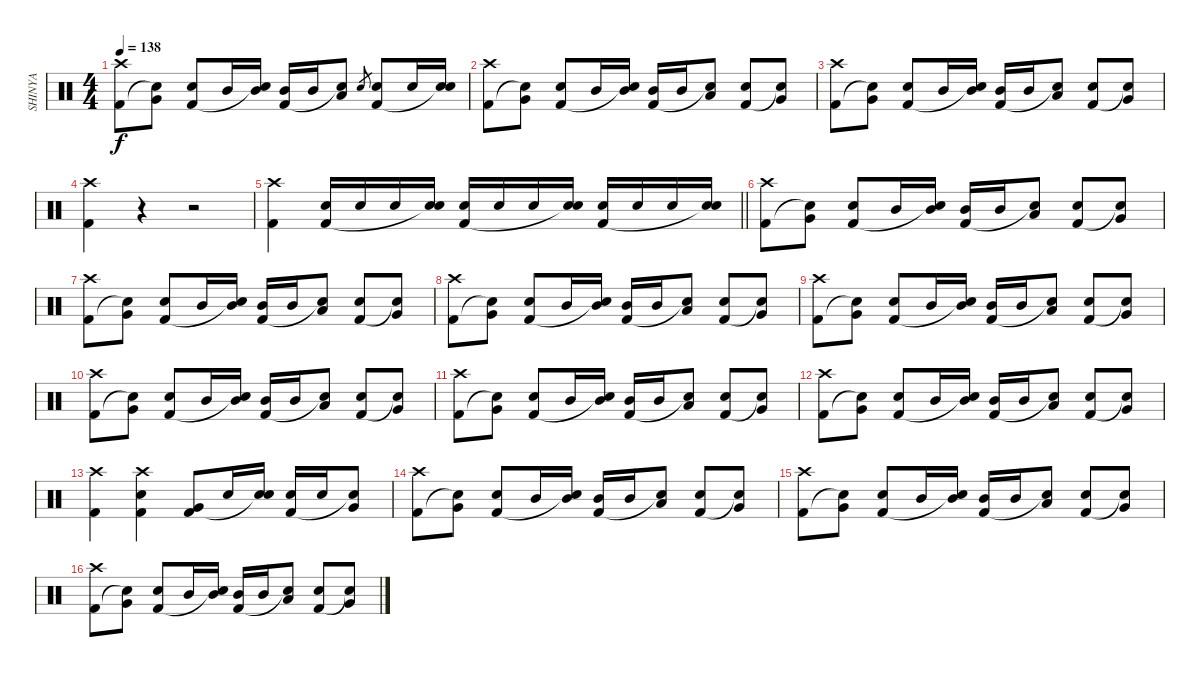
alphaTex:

\track ("SHINYA" "SHINYA") {instrument percussion}
\staff {score}
\articulation defaults
\ts (4 4)
\tempo 138
\clef neutral
\ks c
("Crash high (hit)" "Kick (hit) 2").8{dy f} ("Very Low Tom (hit)" "Snare (hit)"{t}).8 ("Electric Snare (hit)" "Kick (hit) 2").8 "Mid Tom (hit)".16 ("Mid Tom (hit)" "Snare (hit)"{t}).16 ("Mid Tom (hit)" "Kick (hit) 2").16 "Mid Tom (hit)".16 ("Low Tom (hit)" "Snare (hit)"{t}).8 "Electric Snare (hit)".8{gr} ("Electric Snare (hit)" "Kick (hit) 2").8 "Electric Snare (hit)".16 ("Electric Snare (hit)" "Snare (hit)"{t}).16 |
("Crash high (hit)" "Kick (hit) 2").8 ("Very Low Tom (hit)" "Snare (hit)"{t}).8 ("Electric Snare (hit)" "Kick (hit) 2").8 "Mid Tom (hit)".16 ("Mid Tom (hit)" "Snare (hit)"{t}).16 ("Mid Tom (hit)" "Kick (hit) 2").16 "Mid Tom (hit)".16 ("Low Tom (hit)" "Snare (hit)"{t}).8 ("Electric Snare (hit)" "Kick (hit) 2").8 ("Very Low Tom (hit)" "Snare (hit)"{t}).8 |
("Crash high (hit)" "Kick (hit) 2").8 ("Very Low Tom (hit)" "Snare (hit)"{t}).8 ("Electric Snare (hit)" "Kick (hit) 2").8 "Mid Tom (hit)".16 ("Mid Tom (hit)" "Snare (hit)"{t}).16 ("Mid Tom (hit)" "Kick (hit) 2").16 "Mid Tom (hit)".16 ("Low Tom (hit)" "Snare (hit)"{t}).8 ("Electric Snare (hit)" "Kick (hit) 2").8 ("Very Low Tom (hit)" "Snare (hit)"{t}).8 |
("Crash high (hit)" "Kick (hit) 2").4 r.4 r.2 |
\barLineRight lightlight
("Crash high (hit)" "Kick (hit) 2").4 ("Electric Snare (hit)" "Kick (hit) 2").16 "Electric Snare (hit)".16 "Electric Snare (hit)".16 ("Electric Snare (hit)" "Snare (hit)"{t}).16 ("Electric Snare (hit)" "Kick (hit) 2").16 "Electric Snare (hit)".16 "Electric Snare (hit)".16 ("Electric Snare (hit)" "Snare (hit)"{t}).16 ("Electric Snare (hit)" "Kick (hit) 2").16 "Electric Snare (hit)".16 "Electric Snare (hit)".16 ("Electric Snare (hit)" "Snare (hit)"{t}).16 |
("Crash high (hit)" "Kick (hit) 2").8 ("Very Low Tom (hit)" "Snare (hit)"{t}).8 ("Electric Snare (hit)" "Kick (hit) 2").8 "Mid Tom (hit)".16 ("Mid Tom (hit)" "Snare (hit)"{t}).16 ("Mid Tom (hit)" "Kick (hit) 2").16 "Mid Tom (hit)".16 ("Low Tom (hit)" "Snare (hit)"{t}).8 ("Electric Snare (hit)" "Kick (hit) 2").8 ("Very Low Tom (hit)" "Snare (hit)"{t}).8 |
("Crash high (hit)" "Kick (hit) 2").8 ("Very Low Tom (hit)" "Snare (hit)"{t}).8 ("Electric Snare (hit)" "Kick (hit) 2").8 "Mid Tom (hit)".16 ("Mid Tom (hit)" "Snare (hit)"{t}).16 ("Mid Tom (hit)" "Kick (hit) 2").16 "Mid Tom (hit)".16 ("Low Tom (hit)" "Snare (hit)"{t}).8 ("Electric Snare (hit)" "Kick (hit) 2").8 ("Very Low Tom (hit)" "Snare (hit)"{t}).8 |
("Crash high (hit)" "Kick (hit) 2").8 ("Very Low Tom (hit)" "Snare (hit)"{t}).8 ("Electric Snare (hit)" "Kick (hit) 2").8 "Mid Tom (hit)".16 ("Mid Tom (hit)" "Snare (hit)"{t}).16 ("Mid Tom (hit)" "Kick (hit) 2").16 "Mid Tom (hit)".16 ("Low Tom (hit)" "Snare (hit)"{t}).8 ("Electric Snare (hit)" "Kick (hit) 2").8 ("Very Low Tom (hit)" "Snare (hit)"{t}).8 |
("Crash high (hit)" "Kick (hit) 2").8 ("Very Low Tom (hit)" "Snare (hit)"{t}).8 ("Electric Snare (hit)" "Kick (hit) 2").8 "Mid Tom (hit)".16 ("Mid Tom (hit)" "Snare (hit)"{t}).16 ("Mid Tom (hit)" "Kick (hit) 2").16 "Mid Tom (hit)".16 ("Low Tom (hit)" "Snare (hit)"{t}).8 ("Electric Snare (hit)" "Kick (hit) 2").8 ("Very Low Tom (hit)" "Snare (hit)"{t}).8 |
("Crash high (hit)" "Kick (hit) 2").8 ("Very Low Tom (hit)" "Snare (hit)"{t}).8 ("Electric Snare (hit)" "Kick (hit) 2").8 "Mid Tom (hit)".16 ("Mid Tom (hit)" "Snare (hit)"{t}).16 ("Mid Tom (hit)" "Kick (hit) 2").16 "Mid Tom (hit)".16 ("Low Tom (hit)" "Snare (hit)"{t}).8 ("Electric Snare (hit)" "Kick (hit) 2").8 ("Very Low Tom (hit)" "Snare (hit)"{t}).8 |
("Crash high (hit)" "Kick (hit) 2").8 ("Very Low Tom (hit)" "Snare (hit)"{t}).8 ("Electric Snare (hit)" "Kick (hit) 2").8 "Mid Tom (hit)".16 ("Mid Tom (hit)" "Snare (hit)"{t}).16 ("Mid Tom (hit)" "Kick (hit) 2").16 "Mid Tom (hit)".16 ("Low Tom (hit)" "Snare (hit)"{t}).8 ("Electric Snare (hit)" "Kick (hit) 2").8 ("Very Low Tom (hit)" "Snare (hit)"{t}).8 |
("Crash high (hit)" "Kick (hit) 2").8 ("Very Low Tom (hit)" "Snare (hit)"{t}).8 ("Electric Snare (hit)" "Kick (hit) 2").8 "Mid Tom (hit)".16 ("Mid Tom (hit)" "Snare (hit)"{t}).16 ("Mid Tom (hit)" "Kick (hit) 2").16 "Mid Tom (hit)".16 ("Low Tom (hit)" "Snare (hit)"{t}).8 ("Electric Snare (hit)" "Kick (hit) 2").8 ("Very Low Tom (hit)" "Snare (hit)"{t}).8 |
("Crash high (hit)" "Kick (hit) 2").4 ("Crash high (hit)" "Electric Snare (hit)" "Kick (hit) 2").4 ("Very Low Tom (hit)" "Kick (hit) 2").8 "Electric Snare (hit)".16 ("Electric Snare (hit)" "Snare (hit)"{t}).16 ("Electric Snare (hit)" "Kick (hit) 2").16 "Electric Snare (hit)".16 ("Very Low Tom (hit)" "Snare (hit)"{t}).8 |
("Crash high (hit)" "Kick (hit) 2").8 ("Very Low Tom (hit)" "Snare (hit)"{t}).8 ("Electric Snare (hit)" "Kick (hit) 2").8 "Mid Tom (hit)".16 ("Mid Tom (hit)" "Snare (hit)"{t}).16 ("Mid Tom (hit)" "Kick (hit) 2").16 "Mid Tom (hit)".16 ("Low Tom (hit)" "Snare (hit)"{t}).8 ("Electric Snare (hit)" "Kick (hit) 2").8 ("Very Low Tom (hit)" "Snare (hit)"{t}).8 |
("Crash high (hit)" "Kick (hit) 2").8 ("Very Low Tom (hit)" "Snare (hit)"{t}).8 ("Electric Snare (hit)" "Kick (hit) 2").8 "Mid Tom (hit)".16 ("Mid Tom (hit)" "Snare (hit)"{t}).16 ("Mid Tom (hit)" "Kick (hit) 2").16 "Mid Tom (hit)".16 ("Low Tom (hit)" "Snare (hit)"{t}).8 ("Electric Snare (hit)" "Kick (hit) 2").8 ("Very Low Tom (hit)" "Snare (hit)"{t}).8 |
("Crash high (hit)" "Kick (hit) 2").8 ("Very Low Tom (hit)" "Snare (hit)"{t}).8 ("Electric Snare (hit)" "Kick (hit) 2").8 "Mid Tom (hit)".16 ("Mid Tom (hit)" "Snare (hit)"{t}).16 ("Mid Tom (hit)" "Kick (hit) 2").16 "Mid Tom (hit)".16 ("Low Tom (hit)" "Snare (hit)"{t}).8 ("Electric Snare (hit)" "Kick (hit) 2").8 ("Very Low Tom (hit)" "Snare (hit)"{t}).8
